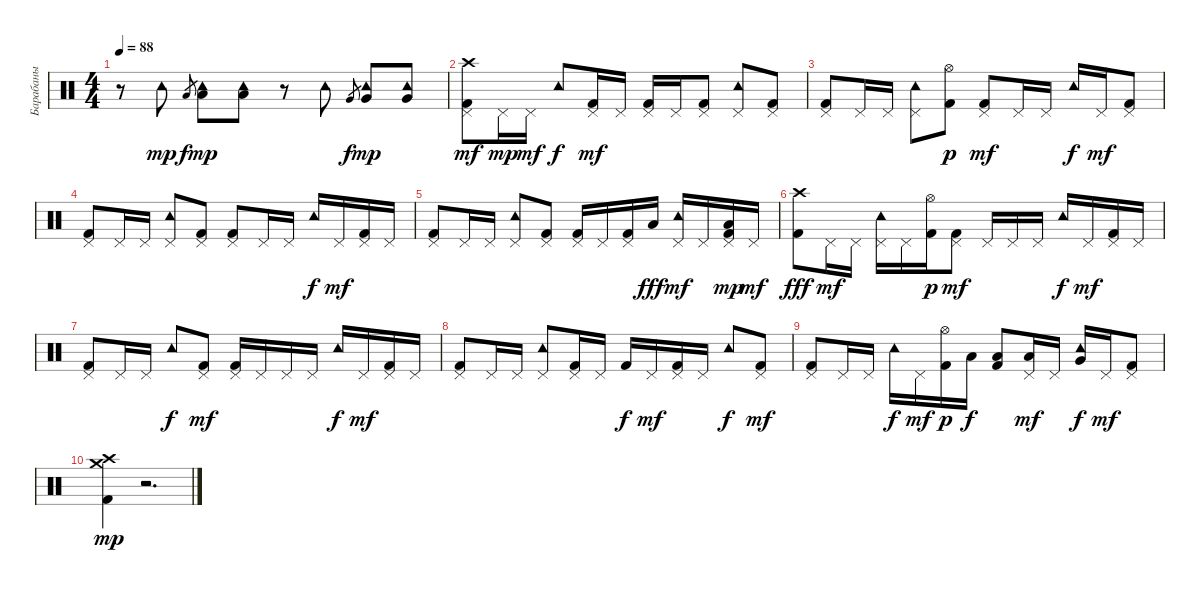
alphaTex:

\track ("Барабаны" "Барабаны") {instrument percussion}
\staff {score}
\articulation defaults
\ts (4 4)
\tempo 88
\clef neutral
\ks c
r.8{dy mp} "Tambourine (hit)".8 "Low Tom (hit)".8{gr dy f} ("Tambourine (hit)" "Low Tom (hit)").8{dy mp} ("Tambourine (hit)" "Low Tom (hit)").8 r.8 "Tambourine (hit)".8 "Very Low Tom (hit)".8{gr dy f} ("Tambourine (hit)" "Very Low Tom (hit)").8{dy mp} ("Tambourine (hit)" "Very Low Tom (hit)").8 |
("Crash high (hit)" "Pedal Hi-Hat (hit)" "Kick (hit) 2").8{dy mf} "Pedal Hi-Hat (hit)".16{dy mp} "Pedal Hi-Hat (hit)".16{dy mf} "Tambourine (hit)".8{dy f} ("Pedal Hi-Hat (hit)" "Kick (hit) 2").16{dy mf} "Pedal Hi-Hat (hit)".16 ("Kick (hit) 2" "Pedal Hi-Hat (hit)").16 "Pedal Hi-Hat (hit)".16 ("Kick (hit) 2" "Pedal Hi-Hat (hit)").8 ("Pedal Hi-Hat (hit)" "Tambourine (hit)").8 ("Kick (hit) 2" "Pedal Hi-Hat (hit)").8 |
("Kick (hit) 2" "Pedal Hi-Hat (hit)").8 "Pedal Hi-Hat (hit)".16 "Pedal Hi-Hat (hit)".16 ("Pedal Hi-Hat (hit)" "Tambourine (hit)").8 ("Kick (hit) 2" "Hi-Hat (open)").8{dy p} ("Kick (hit) 2" "Pedal Hi-Hat (hit)").8{dy mf} "Pedal Hi-Hat (hit)".16 "Pedal Hi-Hat (hit)".16 "Tambourine (hit)".16{dy f} "Pedal Hi-Hat (hit)".16{dy mf} ("Pedal Hi-Hat (hit)" "Kick (hit) 2").8 |
("Kick (hit) 2" "Pedal Hi-Hat (hit)").8 "Pedal Hi-Hat (hit)".16 "Pedal Hi-Hat (hit)".16 ("Pedal Hi-Hat (hit)" "Tambourine (hit)").8 ("Kick (hit) 2" "Pedal Hi-Hat (hit)").8 ("Pedal Hi-Hat (hit)" "Kick (hit) 2").8 "Pedal Hi-Hat (hit)".16 "Pedal Hi-Hat (hit)".16 "Tambourine (hit)".16{dy f} "Pedal Hi-Hat (hit)".16{dy mf} ("Kick (hit) 2" "Pedal Hi-Hat (hit)").16 "Pedal Hi-Hat (hit)".16 |
("Pedal Hi-Hat (hit)" "Kick (hit) 2").8 "Pedal Hi-Hat (hit)".16 "Pedal Hi-Hat (hit)".16 ("Pedal Hi-Hat (hit)" "Tambourine (hit)").8 ("Pedal Hi-Hat (hit)" "Kick (hit) 2").8 ("Pedal Hi-Hat (hit)" "Kick (hit) 2").16 "Pedal Hi-Hat (hit)".16 ("Kick (hit) 2" "Pedal Hi-Hat (hit)").16 "Low Tom (hit)".16{dy fff} ("Pedal Hi-Hat (hit)" "Tambourine (hit)").16{dy mf} "Pedal Hi-Hat (hit)".16 ("Low Tom (hit)" "Pedal Hi-Hat (hit)" "Kick (hit) 2").16{dy mp} "Pedal Hi-Hat (hit)".16{dy mf} |
("Crash high (hit)" "Kick (hit) 2").8{dy fff} "Pedal Hi-Hat (hit)".16{dy mf} "Pedal Hi-Hat (hit)".16 ("Tambourine (hit)" "Pedal Hi-Hat (hit)").16 "Pedal Hi-Hat (hit)".16 ("Kick (hit) 2" "Hi-Hat (open)").16{dy p} ("Kick (hit) 2" "Pedal Hi-Hat (hit)").8{dy mf} "Pedal Hi-Hat (hit)".16 "Pedal Hi-Hat (hit)".16 "Pedal Hi-Hat (hit)".16 "Tambourine (hit)".16{dy f} "Pedal Hi-Hat (hit)".16{dy mf} ("Pedal Hi-Hat (hit)" "Kick (hit) 2").16 "Pedal Hi-Hat (hit)".16 |
("Kick (hit) 2" "Pedal Hi-Hat (hit)").8 "Pedal Hi-Hat (hit)".16 "Pedal Hi-Hat (hit)".16 "Tambourine (hit)".8{dy f} ("Kick (hit) 2" "Pedal Hi-Hat (hit)").8{dy mf} ("Pedal Hi-Hat (hit)" "Kick (hit) 2").16 "Pedal Hi-Hat (hit)".16 "Pedal Hi-Hat (hit)".16 "Pedal Hi-Hat (hit)".16 "Tambourine (hit)".16{dy f} "Pedal Hi-Hat (hit)".16{dy mf} ("Kick (hit) 2" "Pedal Hi-Hat (hit)").16 "Pedal Hi-Hat (hit)".16 |
("Pedal Hi-Hat (hit)" "Kick (hit) 2").8 "Pedal Hi-Hat (hit)".16 "Pedal Hi-Hat (hit)".16 ("Pedal Hi-Hat (hit)" "Tambourine (hit)").8 ("Pedal Hi-Hat (hit)" "Kick (hit) 2").16 "Pedal Hi-Hat (hit)".16 "Kick (hit) 2".16{dy f} "Pedal Hi-Hat (hit)".16{dy mf} ("Kick (hit) 2" "Pedal Hi-Hat (hit)").16 "Pedal Hi-Hat (hit)".16 "Tambourine (hit)".8{dy f} ("Kick (hit) 2" "Pedal Hi-Hat (hit)").8{dy mf} |
("Kick (hit) 2" "Pedal Hi-Hat (hit)").8 "Pedal Hi-Hat (hit)".16 "Pedal Hi-Hat (hit)".16 "Tambourine (hit)".16{dy f} "Pedal Hi-Hat (hit)".16{dy mf} ("Kick (hit) 2" "Hi-Hat (open)").16{dy p} "Low Tom (hit)".16{dy f} ("Low Tom (hit)" "Kick (hit) 2").8 ("Pedal Hi-Hat (hit)" "Low Tom (hit)").16{dy mf} "Pedal Hi-Hat (hit)".16 ("Tambourine (hit)" "Very Low Tom (hit)").16{dy f} "Pedal Hi-Hat (hit)".16{dy mf} ("Kick (hit) 2" "Pedal Hi-Hat (hit)").8 |
("Kick (hit) 2" "Crash high (hit)" "Crash medium (hit)").4{dy mp} r.2{d}
